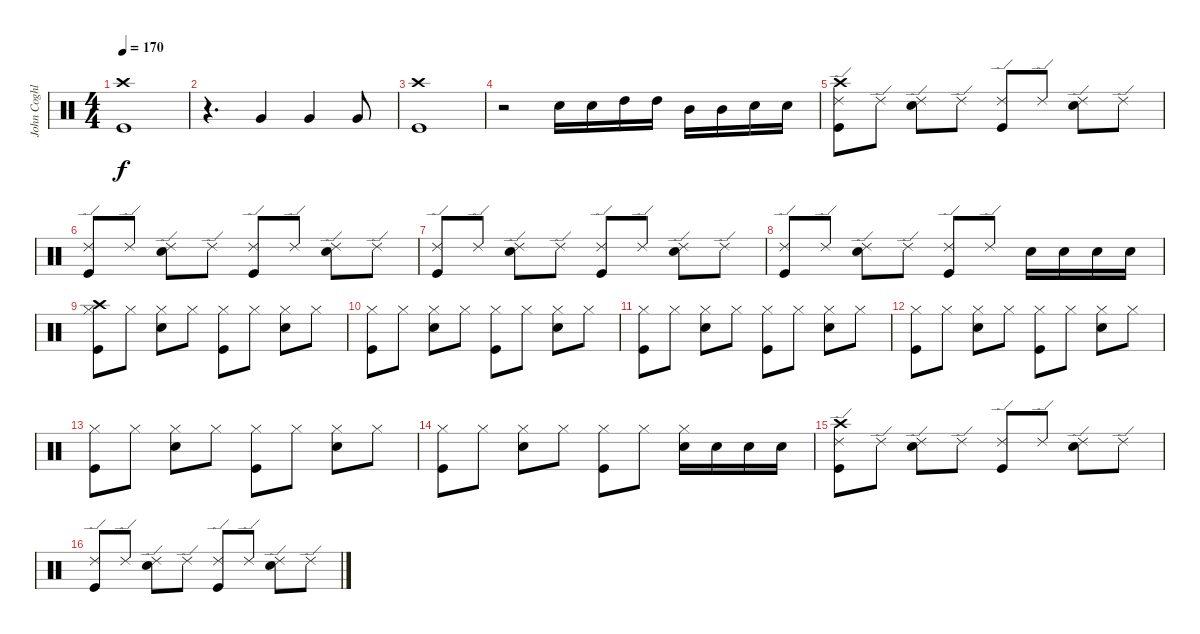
\track ("John Coghlan" "John Coghl") {instrument percussion}
\staff {score}
\articulation defaults
\ts (4 4)
\tempo 170
\clef neutral
\ks c
("Crash high (hit)" "Kick (hit)").1{dy f} |
r.4{d} "Very Low Tom (hit)".4 "Very Low Tom (hit)".4 "Very Low Tom (hit)".8 |
("Crash high (hit)" "Kick (hit)").1 |
r.2 "Electric Snare (hit)".16 "Electric Snare (hit)".16 "High Tom (hit)".16 "High Tom (hit)".16 "Mid Tom (hit)".16 "Mid Tom (hit)".16 "Electric Snare (hit)".16 "Electric Snare (hit)".16 |
("Crash high (hit)" "Ride (edge) 2" "Kick (hit)").8 "Ride (edge) 2".8 ("Electric Snare (hit)" "Ride (edge) 2").8 "Ride (edge) 2".8 ("Ride (edge) 2" "Kick (hit)").8 "Ride (edge) 2".8 ("Electric Snare (hit)" "Ride (edge) 2").8 "Ride (edge) 2".8 |
("Ride (edge) 2" "Kick (hit)").8 "Ride (edge) 2".8 ("Electric Snare (hit)" "Ride (edge) 2").8 "Ride (edge) 2".8 ("Ride (edge) 2" "Kick (hit)").8 "Ride (edge) 2".8 ("Electric Snare (hit)" "Ride (edge) 2").8 "Ride (edge) 2".8 |
("Ride (edge) 2" "Kick (hit)").8 "Ride (edge) 2".8 ("Electric Snare (hit)" "Ride (edge) 2").8 "Ride (edge) 2".8 ("Ride (edge) 2" "Kick (hit)").8 "Ride (edge) 2".8 ("Electric Snare (hit)" "Ride (edge) 2").8 "Ride (edge) 2".8 |
("Ride (edge) 2" "Kick (hit)").8 "Ride (edge) 2".8 ("Electric Snare (hit)" "Ride (edge) 2").8 "Ride (edge) 2".8 ("Ride (edge) 2" "Kick (hit)").8 "Ride (edge) 2".8 "Electric Snare (hit)".16 "Electric Snare (hit)".16 "Electric Snare (hit)".16 "Electric Snare (hit)".16 |
("Crash high (hit)" "Hi-Hat (closed)" "Kick (hit)").8 "Hi-Hat (closed)".8 ("Electric Snare (hit)" "Hi-Hat (closed)").8 "Hi-Hat (closed)".8 ("Hi-Hat (closed)" "Kick (hit)").8 "Hi-Hat (closed)".8 ("Electric Snare (hit)" "Hi-Hat (closed)").8 "Hi-Hat (closed)".8 |
("Hi-Hat (closed)" "Kick (hit)").8 "Hi-Hat (closed)".8 ("Electric Snare (hit)" "Hi-Hat (closed)").8 "Hi-Hat (closed)".8 ("Hi-Hat (closed)" "Kick (hit)").8 "Hi-Hat (closed)".8 ("Electric Snare (hit)" "Hi-Hat (closed)").8 "Hi-Hat (closed)".8 |
("Hi-Hat (closed)" "Kick (hit)").8 "Hi-Hat (closed)".8 ("Electric Snare (hit)" "Hi-Hat (closed)").8 "Hi-Hat (closed)".8 ("Hi-Hat (closed)" "Kick (hit)").8 "Hi-Hat (closed)".8 ("Electric Snare (hit)" "Hi-Hat (closed)").8 "Hi-Hat (closed)".8 |
("Hi-Hat (closed)" "Kick (hit)").8 "Hi-Hat (closed)".8 ("Electric Snare (hit)" "Hi-Hat (closed)").8 "Hi-Hat (closed)".8 ("Hi-Hat (closed)" "Kick (hit)").8 "Hi-Hat (closed)".8 ("Electric Snare (hit)" "Hi-Hat (closed)").8 "Hi-Hat (closed)".8 |
("Hi-Hat (closed)" "Kick (hit)").8 "Hi-Hat (closed)".8 ("Electric Snare (hit)" "Hi-Hat (closed)").8 "Hi-Hat (closed)".8 ("Hi-Hat (closed)" "Kick (hit)").8 "Hi-Hat (closed)".8 ("Electric Snare (hit)" "Hi-Hat (closed)").8 "Hi-Hat (closed)".8 |
("Hi-Hat (closed)" "Kick (hit)").8 "Hi-Hat (closed)".8 ("Electric Snare (hit)" "Hi-Hat (closed)").8 "Hi-Hat (closed)".8 ("Hi-Hat (closed)" "Kick (hit)").8 "Hi-Hat (closed)".8 ("Electric Snare (hit)" "Hi-Hat (closed)").16 "Electric Snare (hit)".16 "Electric Snare (hit)".16 "Electric Snare (hit)".16 |
("Crash high (hit)" "Ride (edge) 2" "Kick (hit)").8 "Ride (edge) 2".8 ("Electric Snare (hit)" "Ride (edge) 2").8 "Ride (edge) 2".8 ("Ride (edge) 2" "Kick (hit)").8 "Ride (edge) 2".8 ("Electric Snare (hit)" "Ride (edge) 2").8 "Ride (edge) 2".8 |
("Ride (edge) 2" "Kick (hit)").8 "Ride (edge) 2".8 ("Electric Snare (hit)" "Ride (edge) 2").8 "Ride (edge) 2".8 ("Ride (edge) 2" "Kick (hit)").8 "Ride (edge) 2".8 ("Electric Snare (hit)" "Ride (edge) 2").8 "Ride (edge) 2".8
